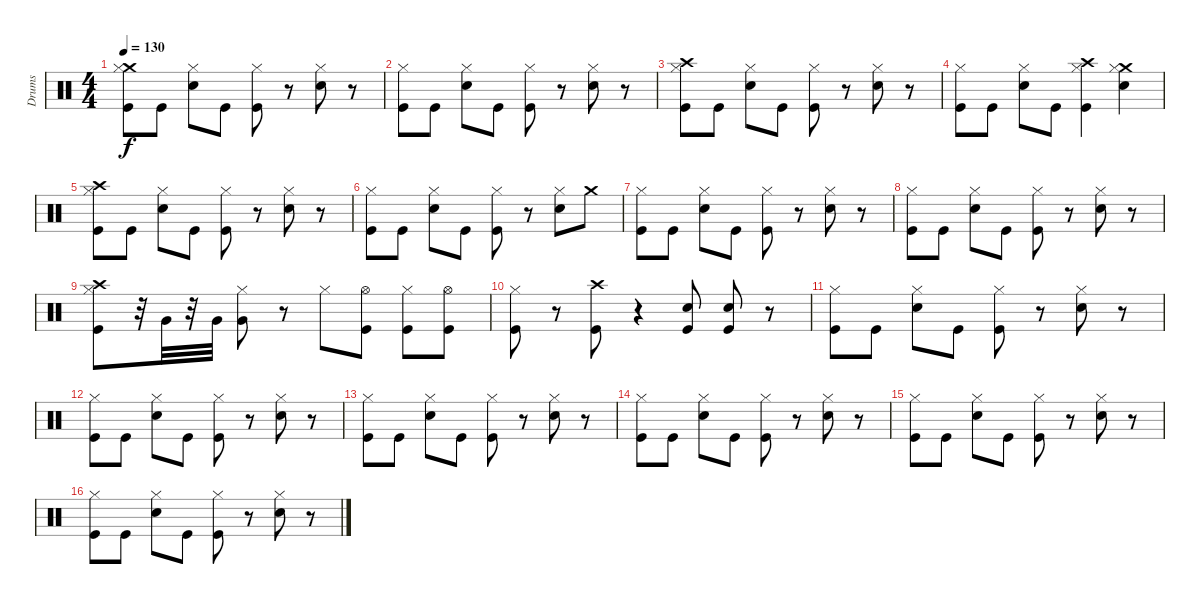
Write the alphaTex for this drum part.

\track ("Drums" "Drums") {instrument percussion}
\staff {score}
\articulation defaults
\ts (4 4)
\tempo 130
\clef neutral
\ks c
("Crash medium (hit)" "Hi-Hat (closed)" "Kick (hit)").8{dy f} "Kick (hit)".8 ("Hi-Hat (closed)" "Snare (hit) 2").8 "Kick (hit)".8 ("Hi-Hat (closed)" "Kick (hit)").8 r.8 ("Hi-Hat (closed)" "Snare (hit) 2").8 r.8 |
("Hi-Hat (closed)" "Kick (hit)").8 "Kick (hit)".8 ("Hi-Hat (closed)" "Snare (hit) 2").8 "Kick (hit)".8 ("Hi-Hat (closed)" "Kick (hit)").8 r.8 ("Hi-Hat (closed)" "Snare (hit) 2").8 r.8 |
("Crash high (hit)" "Hi-Hat (closed)" "Kick (hit)").8 "Kick (hit)".8 ("Hi-Hat (closed)" "Snare (hit) 2").8 "Kick (hit)".8 ("Hi-Hat (closed)" "Kick (hit)").8 r.8 ("Hi-Hat (closed)" "Snare (hit) 2").8 r.8 |
("Hi-Hat (closed)" "Kick (hit)").8 "Kick (hit)".8 ("Hi-Hat (closed)" "Snare (hit) 2").8 "Kick (hit)".8 ("Crash high (hit)" "Hi-Hat (closed)" "Kick (hit)").4 ("Crash medium (hit)" "Hi-Hat (closed)" "Snare (hit) 2").4 |
("Crash high (hit)" "Hi-Hat (closed)" "Kick (hit)").8 "Kick (hit)".8 ("Hi-Hat (closed)" "Snare (hit) 2").8 "Kick (hit)".8 ("Hi-Hat (closed)" "Kick (hit)").8 r.8 ("Hi-Hat (closed)" "Snare (hit) 2").8 r.8 |
("Hi-Hat (closed)" "Kick (hit)").8 "Kick (hit)".8 ("Hi-Hat (closed)" "Snare (hit) 2").8 "Kick (hit)".8 ("Hi-Hat (closed)" "Kick (hit)").8 r.8 ("Hi-Hat (closed)" "Snare (hit) 2").8 "Crash medium (hit)".8 |
("Hi-Hat (closed)" "Kick (hit)").8 "Kick (hit)".8 ("Hi-Hat (closed)" "Snare (hit) 2").8 "Kick (hit)".8 ("Hi-Hat (closed)" "Kick (hit)").8 r.8 ("Hi-Hat (closed)" "Snare (hit) 2").8 r.8 |
("Hi-Hat (closed)" "Kick (hit)").8 "Kick (hit)".8 ("Hi-Hat (closed)" "Snare (hit) 2").8 "Kick (hit)".8 ("Hi-Hat (closed)" "Kick (hit)").8 r.8 ("Hi-Hat (closed)" "Snare (hit) 2").8 r.8 |
("Crash high (hit)" "Hi-Hat (closed)" "Kick (hit)").8 r.32 "Very Low Tom (hit)".32 r.32 "Very Low Tom (hit)".32 ("Very Low Tom (hit)" "Hi-Hat (closed)").8 r.8 "Hi-Hat (closed)".8 ("Kick (hit)" "Hi-Hat (open)").8 ("Hi-Hat (closed)" "Kick (hit)").8 ("Hi-Hat (open)" "Kick (hit)").8 |
("Kick (hit)" "Hi-Hat (closed)").8 r.8 ("Kick (hit)" "Crash high (hit)").8 r.4 ("Kick (hit)" "Electric Snare (hit)").8 ("Kick (hit)" "Electric Snare (hit)").8 r.8 |
("Hi-Hat (closed)" "Kick (hit)").8 "Kick (hit)".8 ("Hi-Hat (closed)" "Snare (hit) 2").8 "Kick (hit)".8 ("Hi-Hat (closed)" "Kick (hit)").8 r.8 ("Hi-Hat (closed)" "Snare (hit) 2").8 r.8 |
("Hi-Hat (closed)" "Kick (hit)").8 "Kick (hit)".8 ("Hi-Hat (closed)" "Snare (hit) 2").8 "Kick (hit)".8 ("Hi-Hat (closed)" "Kick (hit)").8 r.8 ("Hi-Hat (closed)" "Snare (hit) 2").8 r.8 |
("Hi-Hat (closed)" "Kick (hit)").8 "Kick (hit)".8 ("Hi-Hat (closed)" "Snare (hit) 2").8 "Kick (hit)".8 ("Hi-Hat (closed)" "Kick (hit)").8 r.8 ("Hi-Hat (closed)" "Snare (hit) 2").8 r.8 |
("Hi-Hat (closed)" "Kick (hit)").8 "Kick (hit)".8 ("Hi-Hat (closed)" "Snare (hit) 2").8 "Kick (hit)".8 ("Hi-Hat (closed)" "Kick (hit)").8 r.8 ("Hi-Hat (closed)" "Snare (hit) 2").8 r.8 |
("Hi-Hat (closed)" "Kick (hit)").8 "Kick (hit)".8 ("Hi-Hat (closed)" "Snare (hit) 2").8 "Kick (hit)".8 ("Hi-Hat (closed)" "Kick (hit)").8 r.8 ("Hi-Hat (closed)" "Snare (hit) 2").8 r.8 |
("Hi-Hat (closed)" "Kick (hit)").8 "Kick (hit)".8 ("Hi-Hat (closed)" "Snare (hit) 2").8 "Kick (hit)".8 ("Hi-Hat (closed)" "Kick (hit)").8 r.8 ("Hi-Hat (closed)" "Snare (hit) 2").8 r.8
